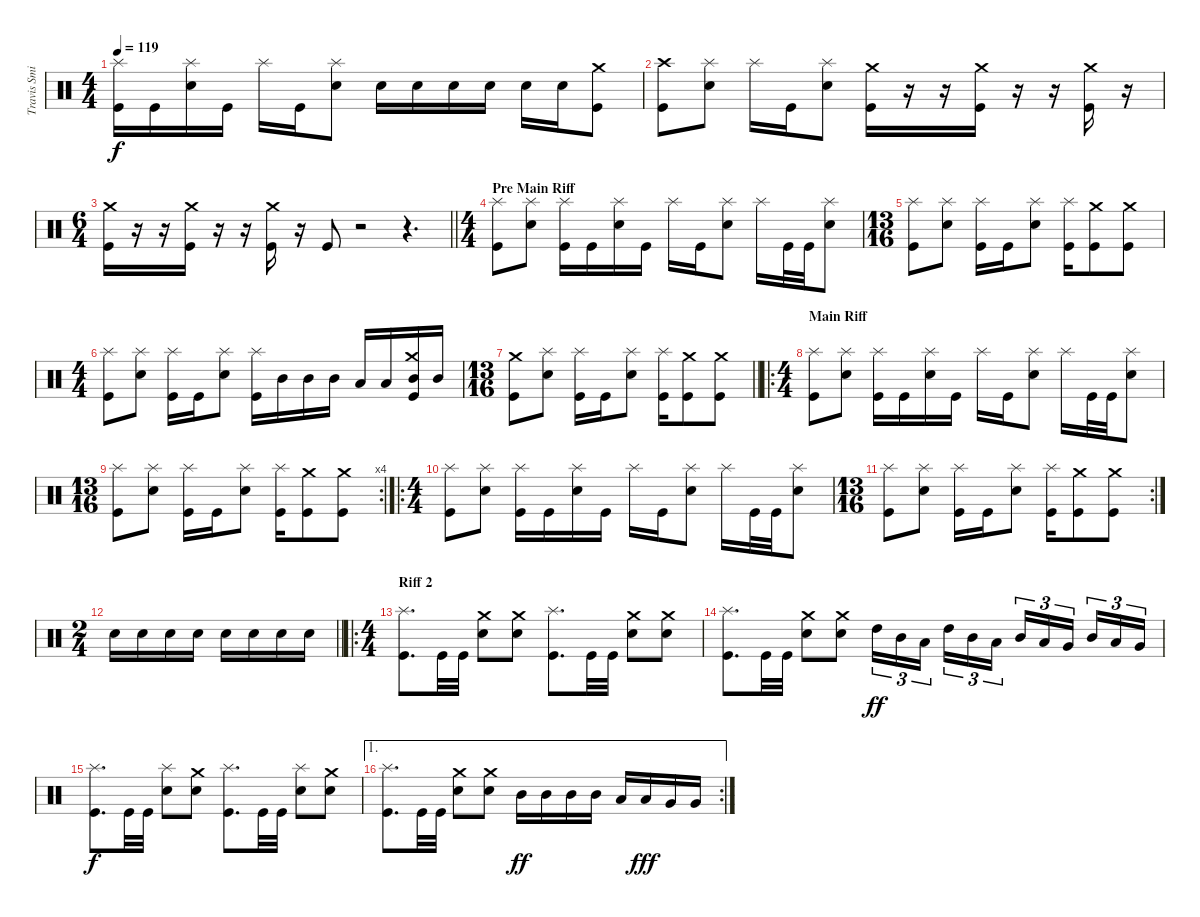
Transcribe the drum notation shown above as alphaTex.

\track ("Travis Smith (Drums)" "Travis Smi") {instrument percussion}
\staff {score}
\articulation defaults
\ts (4 4)
\tempo 119
\clef neutral
\ks c
("Splash (hit)" "Kick (hit)").16{dy f} "Kick (hit)".16 ("Splash (hit)" "Electric Snare (hit)").16 "Kick (hit)".16 "Splash (hit)".16 "Kick (hit)".16 ("Splash (hit)" "Electric Snare (hit)").8 "Electric Snare (hit)".16 "Electric Snare (hit)".16 "Electric Snare (hit)".16 "Electric Snare (hit)".16 "Electric Snare (hit)".16 "Electric Snare (hit)".16 ("Crash medium (hit)" "Kick (hit)").8 |
("Crash high (hit)" "Kick (hit)").8 ("Splash (hit)" "Electric Snare (hit)").8 "Splash (hit)".16 "Kick (hit)".16 ("Splash (hit)" "Electric Snare (hit)").8 ("Crash medium (hit)" "Kick (hit)").16 r.16 r.16 ("Crash medium (hit)" "Kick (hit)").16 r.16 r.16 ("Crash medium (hit)" "Kick (hit)").16 r.16 |
\ts (6 4)
\barLineRight lightlight
("Crash medium (hit)" "Kick (hit)").16 r.16 r.16 ("Crash medium (hit)" "Kick (hit)").16 r.16 r.16 ("Crash medium (hit)" "Kick (hit)").16 r.16 "Kick (hit)".8 r.2 r.4{d} |
\ts (4 4)
\section ("" "Pre Main Riff")
("Splash (hit)" "Kick (hit)").8 ("Splash (hit)" "Electric Snare (hit)").8 ("Splash (hit)" "Kick (hit)").16 "Kick (hit)".16 ("Splash (hit)" "Electric Snare (hit)").16 "Kick (hit)".16 "Splash (hit)".16 "Kick (hit)".16 ("Splash (hit)" "Electric Snare (hit)").8 "Splash (hit)".16 "Kick (hit)".32 "Kick (hit)".32 ("Splash (hit)" "Electric Snare (hit)").8 |
\ts (13 16)
("Splash (hit)" "Kick (hit)").8 ("Splash (hit)" "Electric Snare (hit)").8 ("Splash (hit)" "Kick (hit)").16 "Kick (hit)".16 ("Splash (hit)" "Electric Snare (hit)").8 ("Splash (hit)" "Kick (hit)").16 ("Crash medium (hit)" "Kick (hit)").8 ("Crash medium (hit)" "Kick (hit)").8 |
\ts (4 4)
("Splash (hit)" "Kick (hit)").8 ("Splash (hit)" "Electric Snare (hit)").8 ("Splash (hit)" "Kick (hit)").16 "Kick (hit)".16 ("Splash (hit)" "Electric Snare (hit)").8 ("Splash (hit)" "Kick (hit)").16 "Mid Tom (hit)".16 "Mid Tom (hit)".16 "Mid Tom (hit)".16 "Low Tom (hit)".16 "Low Tom (hit)".16 ("Crash medium (hit)" "Kick (hit)" "Mid Tom (hit)").16 "Mid Tom (hit)".16 |
\ts (13 16)
\barLineRight lightlight
("Crash medium (hit)" "Kick (hit)").8 ("Splash (hit)" "Electric Snare (hit)").8 ("Splash (hit)" "Kick (hit)").16 "Kick (hit)".16 ("Splash (hit)" "Electric Snare (hit)").8 ("Splash (hit)" "Kick (hit)").16 ("Crash medium (hit)" "Kick (hit)").8 ("Crash medium (hit)" "Kick (hit)").8 |
\ro
\ts (4 4)
\section ("" "Main Riff")
("Splash (hit)" "Kick (hit)").8 ("Splash (hit)" "Electric Snare (hit)").8 ("Splash (hit)" "Kick (hit)").16 "Kick (hit)".16 ("Splash (hit)" "Electric Snare (hit)").16 "Kick (hit)".16 "Splash (hit)".16 "Kick (hit)".16 ("Splash (hit)" "Electric Snare (hit)").8 "Splash (hit)".16 "Kick (hit)".32 "Kick (hit)".32 ("Splash (hit)" "Electric Snare (hit)").8 |
\rc 4
\ts (13 16)
("Splash (hit)" "Kick (hit)").8 ("Splash (hit)" "Electric Snare (hit)").8 ("Splash (hit)" "Kick (hit)").16 "Kick (hit)".16 ("Splash (hit)" "Electric Snare (hit)").8 ("Splash (hit)" "Kick (hit)").16 ("Crash medium (hit)" "Kick (hit)").8 ("Crash medium (hit)" "Kick (hit)").8 |
\ro
\ts (4 4)
("Splash (hit)" "Kick (hit)").8 ("Splash (hit)" "Electric Snare (hit)").8 ("Splash (hit)" "Kick (hit)").16 "Kick (hit)".16 ("Splash (hit)" "Electric Snare (hit)").16 "Kick (hit)".16 "Splash (hit)".16 "Kick (hit)".16 ("Splash (hit)" "Electric Snare (hit)").8 "Splash (hit)".16 "Kick (hit)".32 "Kick (hit)".32 ("Splash (hit)" "Electric Snare (hit)").8 |
\rc 2
\ts (13 16)
("Splash (hit)" "Kick (hit)").8 ("Splash (hit)" "Electric Snare (hit)").8 ("Splash (hit)" "Kick (hit)").16 "Kick (hit)".16 ("Splash (hit)" "Electric Snare (hit)").8 ("Splash (hit)" "Kick (hit)").16 ("Crash medium (hit)" "Kick (hit)").8 ("Crash medium (hit)" "Kick (hit)").8 |
\ts (2 4)
\barLineRight lightlight "Electric Snare (hit)".16 "Electric Snare (hit)".16 "Electric Snare (hit)".16 "Electric Snare (hit)".16 "Electric Snare (hit)".16 "Electric Snare (hit)".16 "Electric Snare (hit)".16 "Electric Snare (hit)".16
|
\ro
\ts (4 4)
\section ("" "Riff 2")
("Splash (hit)" "Kick (hit)").8{d} "Kick (hit)".32 "Kick (hit)".32 ("Crash medium (hit)" "Electric Snare (hit)").8 ("Crash medium (hit)" "Electric Snare (hit)").8 ("Splash (hit)" "Kick (hit)").8{d} "Kick (hit)".32 "Kick (hit)".32 ("Crash medium (hit)" "Electric Snare (hit)").8 ("Crash medium (hit)" "Electric Snare (hit)").8 |
("Splash (hit)" "Kick (hit)").8{d} "Kick (hit)".32 "Kick (hit)".32 ("Crash medium (hit)" "Electric Snare (hit)").8 ("Crash medium (hit)" "Electric Snare (hit)").8 "High Tom (hit)".16{tu (3 2) dy ff} "Mid Tom (hit)".16{tu (3 2)} "Low Tom (hit)".16{tu (3 2) beam splitsecondary} "High Tom (hit)".16{tu (3 2)} "Mid Tom (hit)".16{tu (3 2)} "Low Tom (hit)".16{tu (3 2)} "Mid Tom (hit)".16{tu (3 2)} "Low Tom (hit)".16{tu (3 2)} "Very Low Tom (hit)".16{tu (3 2) beam splitsecondary} "Mid Tom (hit)".16{tu (3 2)} "Low Tom (hit)".16{tu (3 2)} "Very Low Tom (hit)".16{tu (3 2)} |
("Splash (hit)" "Kick (hit)").8{d dy f} "Kick (hit)".32 "Kick (hit)".32 ("Splash (hit)" "Electric Snare (hit)").8 ("Crash medium (hit)" "Electric Snare (hit)").8 ("Splash (hit)" "Kick (hit)").8{d} "Kick (hit)".32 "Kick (hit)".32 ("Splash (hit)" "Electric Snare (hit)").8 ("Crash medium (hit)" "Electric Snare (hit)").8 |
\ae 1
\rc 2
("Splash (hit)" "Kick (hit)").8{d} "Kick (hit)".32 "Kick (hit)".32 ("Crash medium (hit)" "Electric Snare (hit)").8 ("Crash medium (hit)" "Electric Snare (hit)").8 "Mid Tom (hit)".16{dy ff} "Mid Tom (hit)".16 "Mid Tom (hit)".16 "Mid Tom (hit)".16 "Low Tom (hit)".16 "Low Tom (hit)".16{dy fff} "Very Low Tom (hit)".16 "Very Low Tom (hit)".16
